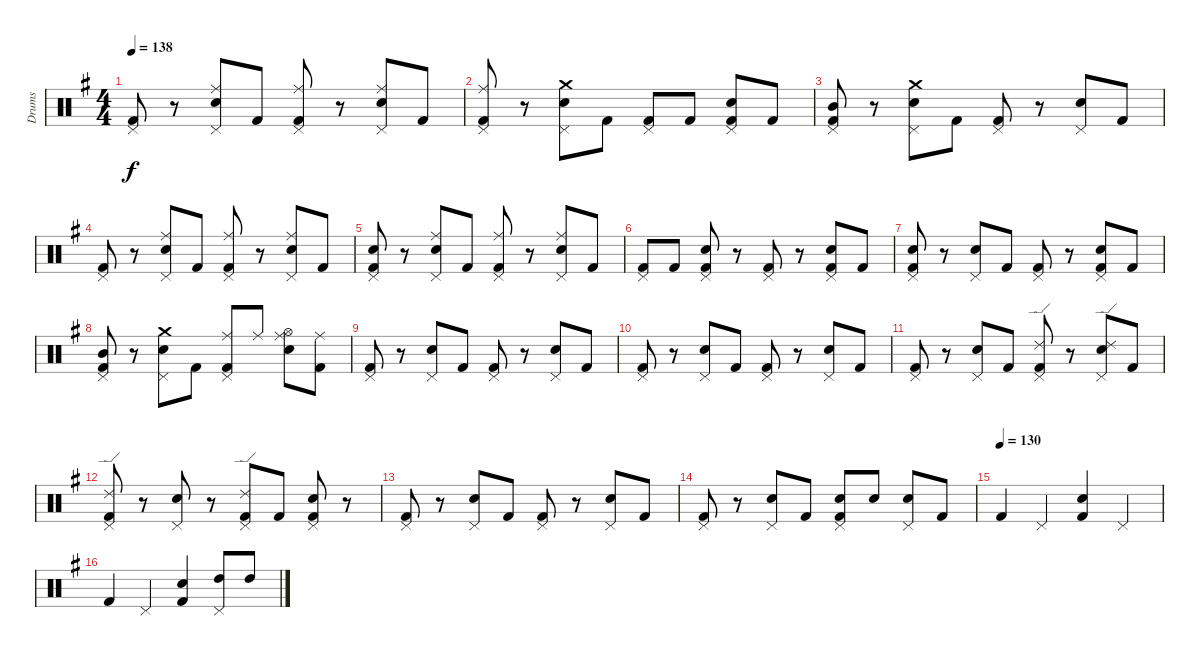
\track ("Drums" "Drums") {instrument percussion}
\staff {score}
\articulation defaults
\ts (4 4)
\tempo 138
\clef neutral
\ks g
("Pedal Hi-Hat (hit)" "Kick (hit) 2").8{dy f} r.8 ("Pedal Hi-Hat (hit)" "Ride (middle)" "Electric Snare (hit)").8 "Kick (hit) 2".8 ("Pedal Hi-Hat (hit)" "Ride (middle)" "Kick (hit) 2").8 r.8 ("Pedal Hi-Hat (hit)" "Ride (middle)" "Electric Snare (hit)").8 "Kick (hit) 2".8 |
("Pedal Hi-Hat (hit)" "Ride (middle)" "Kick (hit) 2").8 r.8 ("Pedal Hi-Hat (hit)" "Crash medium (hit)" "Electric Snare (hit)").8 "Kick (hit) 2".8 ("Pedal Hi-Hat (hit)" "Kick (hit) 2").8 "Kick (hit) 2".8 ("Pedal Hi-Hat (hit)" "Electric Snare (hit)" "Kick (hit) 2").8 "Kick (hit) 2".8 |
("Pedal Hi-Hat (hit)" "Mid Tom (hit)" "Kick (hit) 2").8 r.8 ("Pedal Hi-Hat (hit)" "Crash medium (hit)" "Electric Snare (hit)").8 "Kick (hit) 2".8 ("Pedal Hi-Hat (hit)" "Kick (hit) 2").8 r.8 ("Pedal Hi-Hat (hit)" "Electric Snare (hit)").8 "Kick (hit) 2".8 |
("Pedal Hi-Hat (hit)" "Kick (hit) 2").8 r.8 ("Pedal Hi-Hat (hit)" "Ride (middle)" "Electric Snare (hit)").8 "Kick (hit) 2".8 ("Pedal Hi-Hat (hit)" "Ride (middle)" "Kick (hit) 2").8 r.8 ("Pedal Hi-Hat (hit)" "Ride (middle)" "Electric Snare (hit)").8 "Kick (hit) 2".8 |
("Pedal Hi-Hat (hit)" "Electric Snare (hit)" "Kick (hit) 2").8 r.8 ("Pedal Hi-Hat (hit)" "Ride (middle)" "Electric Snare (hit)").8 "Kick (hit) 2".8 ("Pedal Hi-Hat (hit)" "Ride (middle)" "Kick (hit) 2").8 r.8 ("Pedal Hi-Hat (hit)" "Ride (middle)" "Electric Snare (hit)").8 "Kick (hit) 2".8 |
("Pedal Hi-Hat (hit)" "Kick (hit) 2").8 "Kick (hit) 2".8 ("Pedal Hi-Hat (hit)" "Electric Snare (hit)" "Kick (hit) 2").8 r.8 ("Pedal Hi-Hat (hit)" "Kick (hit) 2").8 r.8 ("Pedal Hi-Hat (hit)" "Electric Snare (hit)" "Kick (hit) 2").8 "Kick (hit) 2".8 |
("Pedal Hi-Hat (hit)" "Electric Snare (hit)" "Kick (hit) 2").8 r.8 ("Pedal Hi-Hat (hit)" "Electric Snare (hit)").8 "Kick (hit) 2".8 ("Pedal Hi-Hat (hit)" "Kick (hit) 2").8 r.8 ("Pedal Hi-Hat (hit)" "Electric Snare (hit)" "Kick (hit) 2").8 "Kick (hit) 2".8 |
("Pedal Hi-Hat (hit)" "Mid Tom (hit)" "Kick (hit) 2").8 r.8 ("Pedal Hi-Hat (hit)" "Crash medium (hit)" "Electric Snare (hit)").8 "Kick (hit) 2".8 ("Pedal Hi-Hat (hit)" "Ride (middle)" "Kick (hit) 2").8 "Ride (middle)".8 ("Hi-Hat (open)" "Ride (middle)" "Electric Snare (hit)").8 ("Ride (middle)" "Kick (hit) 2").8 |
("Pedal Hi-Hat (hit)" "Kick (hit) 2").8 r.8 ("Pedal Hi-Hat (hit)" "Electric Snare (hit)").8 "Kick (hit) 2".8 ("Pedal Hi-Hat (hit)" "Kick (hit) 2").8 r.8 ("Pedal Hi-Hat (hit)" "Electric Snare (hit)").8 "Kick (hit) 2".8 |
("Pedal Hi-Hat (hit)" "Kick (hit) 2").8 r.8 ("Pedal Hi-Hat (hit)" "Electric Snare (hit)").8 "Kick (hit) 2".8 ("Pedal Hi-Hat (hit)" "Kick (hit) 2").8 r.8 ("Pedal Hi-Hat (hit)" "Electric Snare (hit)").8 "Kick (hit) 2".8 |
("Pedal Hi-Hat (hit)" "Kick (hit) 2").8 r.8 ("Pedal Hi-Hat (hit)" "Electric Snare (hit)").8 "Kick (hit) 2".8 ("Pedal Hi-Hat (hit)" "Ride (edge) 2" "Kick (hit) 2").8 r.8 ("Pedal Hi-Hat (hit)" "Ride (edge) 2" "Electric Snare (hit)").8 "Kick (hit) 2".8 |
("Pedal Hi-Hat (hit)" "Ride (edge) 2" "Kick (hit) 2").8 r.8 ("Pedal Hi-Hat (hit)" "Electric Snare (hit)").8 r.8 ("Pedal Hi-Hat (hit)" "Ride (edge) 2" "Kick (hit) 2").8 "Kick (hit) 2".8 ("Pedal Hi-Hat (hit)" "Electric Snare (hit)" "Kick (hit) 2").8 r.8 |
("Pedal Hi-Hat (hit)" "Kick (hit) 2").8 r.8 ("Pedal Hi-Hat (hit)" "Electric Snare (hit)").8 "Kick (hit) 2".8 ("Pedal Hi-Hat (hit)" "Kick (hit) 2").8 r.8 ("Pedal Hi-Hat (hit)" "Electric Snare (hit)").8 "Kick (hit) 2".8 |
("Pedal Hi-Hat (hit)" "Kick (hit) 2").8 r.8 ("Pedal Hi-Hat (hit)" "Electric Snare (hit)").8 "Kick (hit) 2".8 ("Pedal Hi-Hat (hit)" "Electric Snare (hit)" "Kick (hit) 2").8 "Electric Snare (hit)".8 ("Pedal Hi-Hat (hit)" "Electric Snare (hit)").8 "Kick (hit) 2".8 |
\tempo (130)
"Kick (hit) 2".4 "Pedal Hi-Hat (hit)".4 ("Electric Snare (hit)" "Kick (hit) 2").4 "Pedal Hi-Hat (hit)".4 |
"Kick (hit) 2".4 "Pedal Hi-Hat (hit)".4 ("Electric Snare (hit)" "Kick (hit) 2").4 ("Pedal Hi-Hat (hit)" "High Tom (hit)").8 "High Tom (hit)".8
